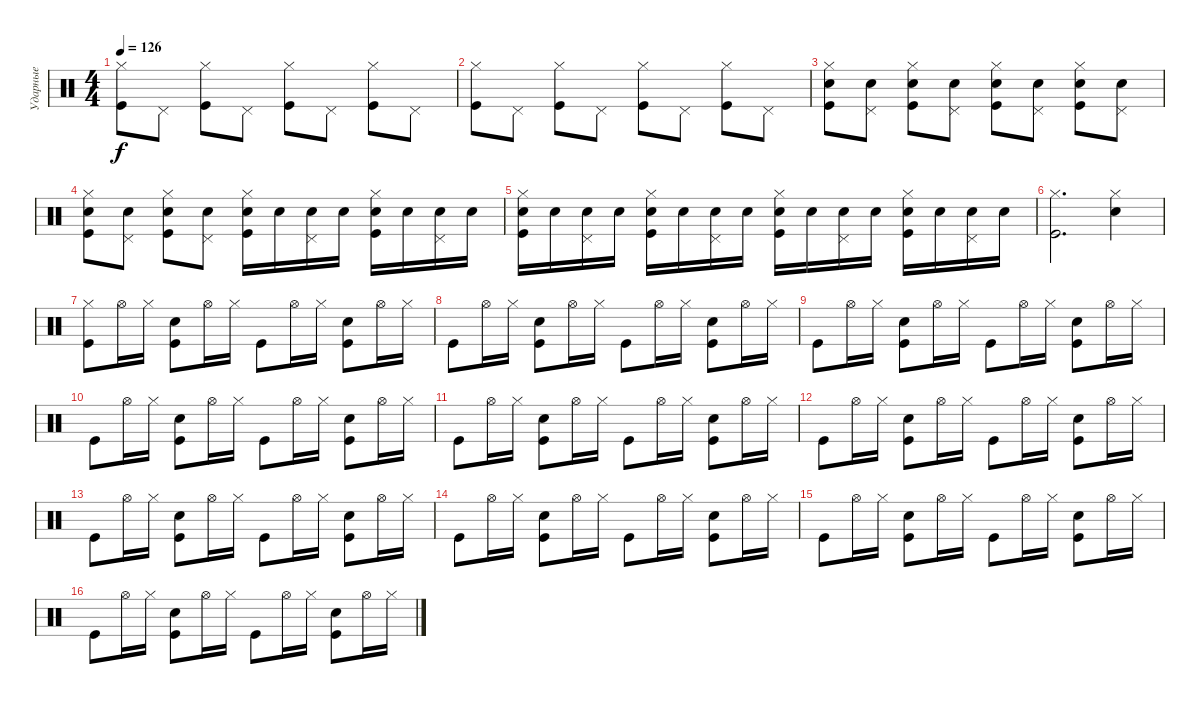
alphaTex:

\track ("Ударные" "Ударные") {instrument percussion}
\staff {score}
\articulation defaults
\ts (4 4)
\tempo 126
\clef neutral
\ks c
("Hi-Hat (closed)" "Kick (hit)").8{dy f} "Pedal Hi-Hat (hit)".8 ("Hi-Hat (closed)" "Kick (hit)").8 "Pedal Hi-Hat (hit)".8 ("Hi-Hat (closed)" "Kick (hit)").8 "Pedal Hi-Hat (hit)".8 ("Hi-Hat (closed)" "Kick (hit)").8 "Pedal Hi-Hat (hit)".8 |
("Hi-Hat (closed)" "Kick (hit)").8 "Pedal Hi-Hat (hit)".8 ("Hi-Hat (closed)" "Kick (hit)").8 "Pedal Hi-Hat (hit)".8 ("Hi-Hat (closed)" "Kick (hit)").8 "Pedal Hi-Hat (hit)".8 ("Hi-Hat (closed)" "Kick (hit)").8 "Pedal Hi-Hat (hit)".8 |
("Hi-Hat (closed)" "Kick (hit)" "Snare (hit) 2").8 ("Pedal Hi-Hat (hit)" "Snare (hit) 2").8 ("Hi-Hat (closed)" "Kick (hit)" "Snare (hit) 2").8 ("Pedal Hi-Hat (hit)" "Snare (hit) 2").8 ("Hi-Hat (closed)" "Kick (hit)" "Snare (hit) 2").8 ("Pedal Hi-Hat (hit)" "Snare (hit) 2").8 ("Hi-Hat (closed)" "Kick (hit)" "Snare (hit) 2").8 ("Pedal Hi-Hat (hit)" "Snare (hit) 2").8 |
("Hi-Hat (closed)" "Kick (hit)" "Snare (hit) 2").8 ("Pedal Hi-Hat (hit)" "Snare (hit) 2").8 ("Hi-Hat (closed)" "Kick (hit)" "Snare (hit) 2").8 ("Pedal Hi-Hat (hit)" "Snare (hit) 2").8 ("Hi-Hat (closed)" "Kick (hit)" "Snare (hit) 2").16 "Snare (hit) 2".16 ("Snare (hit) 2" "Pedal Hi-Hat (hit)").16 "Snare (hit) 2".16 ("Hi-Hat (closed)" "Kick (hit)" "Snare (hit) 2").16 "Snare (hit) 2".16 ("Snare (hit) 2" "Pedal Hi-Hat (hit)").16 "Snare (hit) 2".16 |
("Hi-Hat (closed)" "Kick (hit)" "Snare (hit) 2").16 "Snare (hit) 2".16 ("Snare (hit) 2" "Pedal Hi-Hat (hit)").16 "Snare (hit) 2".16 ("Hi-Hat (closed)" "Kick (hit)" "Snare (hit) 2").16 "Snare (hit) 2".16 ("Snare (hit) 2" "Pedal Hi-Hat (hit)").16 "Snare (hit) 2".16 ("Hi-Hat (closed)" "Kick (hit)" "Snare (hit) 2").16 "Snare (hit) 2".16 ("Snare (hit) 2" "Pedal Hi-Hat (hit)").16 "Snare (hit) 2".16 ("Hi-Hat (closed)" "Kick (hit)" "Snare (hit) 2").16 "Snare (hit) 2".16 ("Snare (hit) 2" "Pedal Hi-Hat (hit)").16 "Snare (hit) 2".16 |
("Hi-Hat (closed)" "Kick (hit)").2{d} ("Snare (hit) 2" "Hi-Hat (closed)").4 |
("Kick (hit)" "Hi-Hat (closed)").8 "Hi-Hat (open)".16 "Hi-Hat (closed)".16 ("Kick (hit)" "Snare (hit) 2").8 "Hi-Hat (open)".16 "Hi-Hat (closed)".16 "Kick (hit)".8 "Hi-Hat (open)".16 "Hi-Hat (closed)".16 ("Kick (hit)" "Snare (hit) 2").8 "Hi-Hat (open)".16 "Hi-Hat (closed)".16 |
"Kick (hit)".8 "Hi-Hat (open)".16 "Hi-Hat (closed)".16 ("Kick (hit)" "Snare (hit) 2").8 "Hi-Hat (open)".16 "Hi-Hat (closed)".16 "Kick (hit)".8 "Hi-Hat (open)".16 "Hi-Hat (closed)".16 ("Kick (hit)" "Snare (hit) 2").8 "Hi-Hat (open)".16 "Hi-Hat (closed)".16 |
"Kick (hit)".8 "Hi-Hat (open)".16 "Hi-Hat (closed)".16 ("Kick (hit)" "Snare (hit) 2").8 "Hi-Hat (open)".16 "Hi-Hat (closed)".16 "Kick (hit)".8 "Hi-Hat (open)".16 "Hi-Hat (closed)".16 ("Kick (hit)" "Snare (hit) 2").8 "Hi-Hat (open)".16 "Hi-Hat (closed)".16 |
"Kick (hit)".8 "Hi-Hat (open)".16 "Hi-Hat (closed)".16 ("Kick (hit)" "Snare (hit) 2").8 "Hi-Hat (open)".16 "Hi-Hat (closed)".16 "Kick (hit)".8 "Hi-Hat (open)".16 "Hi-Hat (closed)".16 ("Kick (hit)" "Snare (hit) 2").8 "Hi-Hat (open)".16 "Hi-Hat (closed)".16 |
"Kick (hit)".8 "Hi-Hat (open)".16 "Hi-Hat (closed)".16 ("Kick (hit)" "Snare (hit) 2").8 "Hi-Hat (open)".16 "Hi-Hat (closed)".16 "Kick (hit)".8 "Hi-Hat (open)".16 "Hi-Hat (closed)".16 ("Kick (hit)" "Snare (hit) 2").8 "Hi-Hat (open)".16 "Hi-Hat (closed)".16 |
"Kick (hit)".8 "Hi-Hat (open)".16 "Hi-Hat (closed)".16 ("Kick (hit)" "Snare (hit) 2").8 "Hi-Hat (open)".16 "Hi-Hat (closed)".16 "Kick (hit)".8 "Hi-Hat (open)".16 "Hi-Hat (closed)".16 ("Kick (hit)" "Snare (hit) 2").8 "Hi-Hat (open)".16 "Hi-Hat (closed)".16 |
"Kick (hit)".8 "Hi-Hat (open)".16 "Hi-Hat (closed)".16 ("Kick (hit)" "Snare (hit) 2").8 "Hi-Hat (open)".16 "Hi-Hat (closed)".16 "Kick (hit)".8 "Hi-Hat (open)".16 "Hi-Hat (closed)".16 ("Kick (hit)" "Snare (hit) 2").8 "Hi-Hat (open)".16 "Hi-Hat (closed)".16 |
"Kick (hit)".8 "Hi-Hat (open)".16 "Hi-Hat (closed)".16 ("Kick (hit)" "Snare (hit) 2").8 "Hi-Hat (open)".16 "Hi-Hat (closed)".16 "Kick (hit)".8 "Hi-Hat (open)".16 "Hi-Hat (closed)".16 ("Kick (hit)" "Snare (hit) 2").8 "Hi-Hat (open)".16 "Hi-Hat (closed)".16 |
"Kick (hit)".8 "Hi-Hat (open)".16 "Hi-Hat (closed)".16 ("Kick (hit)" "Snare (hit) 2").8 "Hi-Hat (open)".16 "Hi-Hat (closed)".16 "Kick (hit)".8 "Hi-Hat (open)".16 "Hi-Hat (closed)".16 ("Kick (hit)" "Snare (hit) 2").8 "Hi-Hat (open)".16 "Hi-Hat (closed)".16 |
"Kick (hit)".8 "Hi-Hat (open)".16 "Hi-Hat (closed)".16 ("Kick (hit)" "Snare (hit) 2").8 "Hi-Hat (open)".16 "Hi-Hat (closed)".16 "Kick (hit)".8 "Hi-Hat (open)".16 "Hi-Hat (closed)".16 ("Kick (hit)" "Snare (hit) 2").8 "Hi-Hat (open)".16 "Hi-Hat (closed)".16
